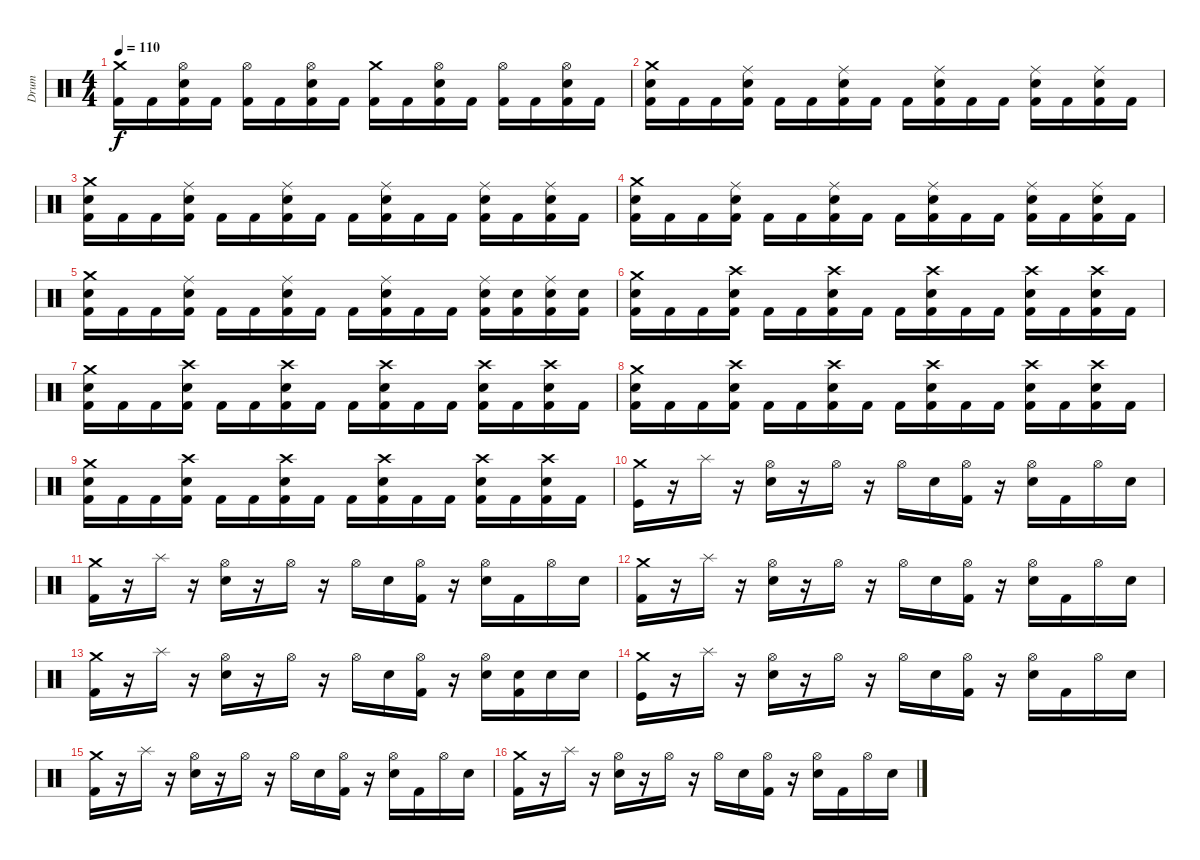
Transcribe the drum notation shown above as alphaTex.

\track ("Drum" "Drum") {instrument percussion}
\staff {score}
\articulation defaults
\ts (4 4)
\tempo 110
\clef neutral
\ks c
("Crash medium (hit)" "Kick (hit) 2").16{dy f} "Kick (hit) 2".16 ("Hi-Hat (open)" "Electric Snare (hit)" "Kick (hit) 2").16 "Kick (hit) 2".16 ("Hi-Hat (open)" "Kick (hit) 2").16 "Kick (hit) 2".16 ("Hi-Hat (open)" "Electric Snare (hit)" "Kick (hit) 2").16 "Kick (hit) 2".16 ("Crash medium (hit)" "Kick (hit) 2").16 "Kick (hit) 2".16 ("Hi-Hat (open)" "Electric Snare (hit)" "Kick (hit) 2").16 "Kick (hit) 2".16 ("Hi-Hat (open)" "Kick (hit) 2").16 "Kick (hit) 2".16 ("Hi-Hat (open)" "Electric Snare (hit)" "Kick (hit) 2").16 "Kick (hit) 2".16 |
("Crash medium (hit)" "Electric Snare (hit)" "Kick (hit) 2").16 "Kick (hit) 2".16 "Kick (hit) 2".16 ("Ride (middle)" "Electric Snare (hit)" "Kick (hit) 2").16 "Kick (hit) 2".16 "Kick (hit) 2".16 ("Ride (middle)" "Electric Snare (hit)" "Kick (hit) 2").16 "Kick (hit) 2".16 "Kick (hit) 2".16 ("Ride (middle)" "Electric Snare (hit)" "Kick (hit) 2").16 "Kick (hit) 2".16 "Kick (hit) 2".16 ("Ride (middle)" "Electric Snare (hit)" "Kick (hit) 2").16 "Kick (hit) 2".16 ("Ride (middle)" "Electric Snare (hit)" "Kick (hit) 2").16 "Kick (hit) 2".16 |
("Crash medium (hit)" "Electric Snare (hit)" "Kick (hit) 2").16 "Kick (hit) 2".16 "Kick (hit) 2".16 ("Ride (middle)" "Electric Snare (hit)" "Kick (hit) 2").16 "Kick (hit) 2".16 "Kick (hit) 2".16 ("Ride (middle)" "Electric Snare (hit)" "Kick (hit) 2").16 "Kick (hit) 2".16 "Kick (hit) 2".16 ("Ride (middle)" "Electric Snare (hit)" "Kick (hit) 2").16 "Kick (hit) 2".16 "Kick (hit) 2".16 ("Ride (middle)" "Electric Snare (hit)" "Kick (hit) 2").16 "Kick (hit) 2".16 ("Ride (middle)" "Electric Snare (hit)" "Kick (hit) 2").16 "Kick (hit) 2".16 |
("Crash medium (hit)" "Electric Snare (hit)" "Kick (hit) 2").16 "Kick (hit) 2".16 "Kick (hit) 2".16 ("Ride (middle)" "Electric Snare (hit)" "Kick (hit) 2").16 "Kick (hit) 2".16 "Kick (hit) 2".16 ("Ride (middle)" "Electric Snare (hit)" "Kick (hit) 2").16 "Kick (hit) 2".16 "Kick (hit) 2".16 ("Ride (middle)" "Electric Snare (hit)" "Kick (hit) 2").16 "Kick (hit) 2".16 "Kick (hit) 2".16 ("Ride (middle)" "Electric Snare (hit)" "Kick (hit) 2").16 "Kick (hit) 2".16 ("Ride (middle)" "Electric Snare (hit)" "Kick (hit) 2").16 "Kick (hit) 2".16 |
("Crash medium (hit)" "Electric Snare (hit)" "Kick (hit) 2").16 "Kick (hit) 2".16 "Kick (hit) 2".16 ("Ride (middle)" "Electric Snare (hit)" "Kick (hit) 2").16 "Kick (hit) 2".16 "Kick (hit) 2".16 ("Ride (middle)" "Electric Snare (hit)" "Kick (hit) 2").16 "Kick (hit) 2".16 "Kick (hit) 2".16 ("Ride (middle)" "Electric Snare (hit)" "Kick (hit) 2").16 "Kick (hit) 2".16 "Kick (hit) 2".16 ("Ride (middle)" "Electric Snare (hit)" "Kick (hit) 2").16 ("Electric Snare (hit)" "Kick (hit) 2").16 ("Ride (middle)" "Electric Snare (hit)" "Kick (hit) 2").16 ("Electric Snare (hit)" "Kick (hit) 2").16 |
("Crash medium (hit)" "Electric Snare (hit)" "Kick (hit) 2").16 "Kick (hit) 2".16 "Kick (hit) 2".16 ("Crash high (hit)" "Electric Snare (hit)" "Kick (hit) 2").16 "Kick (hit) 2".16 "Kick (hit) 2".16 ("Crash high (hit)" "Electric Snare (hit)" "Kick (hit) 2").16 "Kick (hit) 2".16 "Kick (hit) 2".16 ("Crash high (hit)" "Electric Snare (hit)" "Kick (hit) 2").16 "Kick (hit) 2".16 "Kick (hit) 2".16 ("Crash high (hit)" "Electric Snare (hit)" "Kick (hit) 2").16 "Kick (hit) 2".16 ("Crash high (hit)" "Electric Snare (hit)" "Kick (hit) 2").16 "Kick (hit) 2".16 |
("Crash medium (hit)" "Electric Snare (hit)" "Kick (hit) 2").16 "Kick (hit) 2".16 "Kick (hit) 2".16 ("Crash high (hit)" "Electric Snare (hit)" "Kick (hit) 2").16 "Kick (hit) 2".16 "Kick (hit) 2".16 ("Crash high (hit)" "Electric Snare (hit)" "Kick (hit) 2").16 "Kick (hit) 2".16 "Kick (hit) 2".16 ("Crash high (hit)" "Electric Snare (hit)" "Kick (hit) 2").16 "Kick (hit) 2".16 "Kick (hit) 2".16 ("Crash high (hit)" "Electric Snare (hit)" "Kick (hit) 2").16 "Kick (hit) 2".16 ("Crash high (hit)" "Electric Snare (hit)" "Kick (hit) 2").16 "Kick (hit) 2".16 |
("Crash medium (hit)" "Electric Snare (hit)" "Kick (hit) 2").16 "Kick (hit) 2".16 "Kick (hit) 2".16 ("Crash high (hit)" "Electric Snare (hit)" "Kick (hit) 2").16 "Kick (hit) 2".16 "Kick (hit) 2".16 ("Crash high (hit)" "Electric Snare (hit)" "Kick (hit) 2").16 "Kick (hit) 2".16 "Kick (hit) 2".16 ("Crash high (hit)" "Electric Snare (hit)" "Kick (hit) 2").16 "Kick (hit) 2".16 "Kick (hit) 2".16 ("Crash high (hit)" "Electric Snare (hit)" "Kick (hit) 2").16 "Kick (hit) 2".16 ("Crash high (hit)" "Electric Snare (hit)" "Kick (hit) 2").16 "Kick (hit) 2".16 |
("Crash medium (hit)" "Electric Snare (hit)" "Kick (hit) 2").16 "Kick (hit) 2".16 "Kick (hit) 2".16 ("Crash high (hit)" "Electric Snare (hit)" "Kick (hit) 2").16 "Kick (hit) 2".16 "Kick (hit) 2".16 ("Crash high (hit)" "Electric Snare (hit)" "Kick (hit) 2").16 "Kick (hit) 2".16 "Kick (hit) 2".16 ("Crash high (hit)" "Electric Snare (hit)" "Kick (hit) 2").16 "Kick (hit) 2".16 "Kick (hit) 2".16 ("Crash high (hit)" "Electric Snare (hit)" "Kick (hit) 2").16 "Kick (hit) 2".16 ("Crash high (hit)" "Electric Snare (hit)" "Kick (hit) 2").16 "Kick (hit) 2".16 |
("Crash medium (hit)" "Kick (hit)").16 r.16 "Splash (hit)".16 r.16 ("Hi-Hat (open)" "Electric Snare (hit)").16 r.16 "Hi-Hat (open)".16 r.16 "Hi-Hat (open)".16 "Electric Snare (hit)".16 ("Hi-Hat (open)" "Kick (hit) 2").16 r.16 ("Hi-Hat (open)" "Electric Snare (hit)").16 "Kick (hit) 2".16 "Hi-Hat (open)".16 "Electric Snare (hit)".16 |
("Crash medium (hit)" "Kick (hit) 2").16 r.16 "Splash (hit)".16 r.16 ("Hi-Hat (open)" "Electric Snare (hit)").16 r.16 "Hi-Hat (open)".16 r.16 "Hi-Hat (open)".16 "Electric Snare (hit)".16 ("Hi-Hat (open)" "Kick (hit) 2").16 r.16 ("Hi-Hat (open)" "Electric Snare (hit)").16 "Kick (hit) 2".16 "Hi-Hat (open)".16 "Electric Snare (hit)".16 |
("Crash medium (hit)" "Kick (hit) 2").16 r.16 "Splash (hit)".16 r.16 ("Hi-Hat (open)" "Electric Snare (hit)").16 r.16 "Hi-Hat (open)".16 r.16 "Hi-Hat (open)".16 "Electric Snare (hit)".16 ("Hi-Hat (open)" "Kick (hit) 2").16 r.16 ("Hi-Hat (open)" "Electric Snare (hit)").16 "Kick (hit) 2".16 "Hi-Hat (open)".16 "Electric Snare (hit)".16 |
("Crash medium (hit)" "Kick (hit) 2").16 r.16 "Splash (hit)".16 r.16 ("Hi-Hat (open)" "Electric Snare (hit)").16 r.16 "Hi-Hat (open)".16 r.16 "Hi-Hat (open)".16 "Electric Snare (hit)".16 ("Hi-Hat (open)" "Kick (hit) 2").16 r.16 ("Hi-Hat (open)" "Electric Snare (hit)").16 ("Electric Snare (hit)" "Kick (hit) 2").16 "Electric Snare (hit)".16 "Electric Snare (hit)".16 |
("Crash medium (hit)" "Kick (hit)").16 r.16 "Splash (hit)".16 r.16 ("Hi-Hat (open)" "Electric Snare (hit)").16 r.16 "Hi-Hat (open)".16 r.16 "Hi-Hat (open)".16 "Electric Snare (hit)".16 ("Hi-Hat (open)" "Kick (hit) 2").16 r.16 ("Hi-Hat (open)" "Electric Snare (hit)").16 "Kick (hit) 2".16 "Hi-Hat (open)".16 "Electric Snare (hit)".16 |
("Crash medium (hit)" "Kick (hit) 2").16 r.16 "Splash (hit)".16 r.16 ("Hi-Hat (open)" "Electric Snare (hit)").16 r.16 "Hi-Hat (open)".16 r.16 "Hi-Hat (open)".16 "Electric Snare (hit)".16 ("Hi-Hat (open)" "Kick (hit) 2").16 r.16 ("Hi-Hat (open)" "Electric Snare (hit)").16 "Kick (hit) 2".16 "Hi-Hat (open)".16 "Electric Snare (hit)".16 |
("Crash medium (hit)" "Kick (hit) 2").16 r.16 "Splash (hit)".16 r.16 ("Hi-Hat (open)" "Electric Snare (hit)").16 r.16 "Hi-Hat (open)".16 r.16 "Hi-Hat (open)".16 "Electric Snare (hit)".16 ("Hi-Hat (open)" "Kick (hit) 2").16 r.16 ("Hi-Hat (open)" "Electric Snare (hit)").16 "Kick (hit) 2".16 "Hi-Hat (open)".16 "Electric Snare (hit)".16
